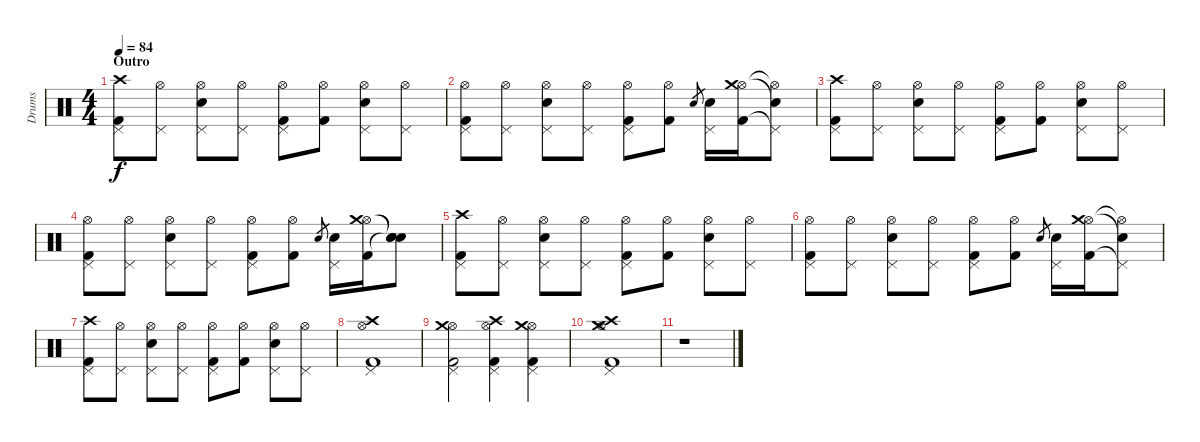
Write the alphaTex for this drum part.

\track ("Drums" "Drums") {instrument percussion}
\staff {score}
\articulation defaults
\ts (4 4)
\section ("" "Outro")
\tempo 84
\clef neutral
\ks c
("Kick (hit) 2" "Pedal Hi-Hat (hit)" "Crash high (hit)").8{dy f} ("Pedal Hi-Hat (hit)" "Hi-Hat (open)").8 ("Snare (hit) 2" "Pedal Hi-Hat (hit)" "Hi-Hat (open)").8 ("Pedal Hi-Hat (hit)" "Hi-Hat (open)").8 ("Kick (hit) 2" "Pedal Hi-Hat (hit)" "Hi-Hat (open)").8 ("Kick (hit) 2" "Hi-Hat (open)").8 ("Snare (hit) 2" "Pedal Hi-Hat (hit)" "Hi-Hat (open)").8 ("Pedal Hi-Hat (hit)" "Hi-Hat (open)").8 |
("Kick (hit) 2" "Pedal Hi-Hat (hit)" "Hi-Hat (open)").8 ("Pedal Hi-Hat (hit)" "Hi-Hat (open)").8 ("Snare (hit) 2" "Pedal Hi-Hat (hit)" "Hi-Hat (open)").8 ("Pedal Hi-Hat (hit)" "Hi-Hat (open)").8 ("Kick (hit) 2" "Pedal Hi-Hat (hit)" "Hi-Hat (open)").8 ("Kick (hit) 2" "Hi-Hat (open)").8 "Snare (hit) 2".8{gr} ("Snare (hit) 2" "Pedal Hi-Hat (hit)").16 ("Kick (hit) 2" "Hi-Hat (open)" "Crash medium (hit)").16 ("Pedal Hi-Hat (hit)"{t} "Hi-Hat (open)"{t} "Snare (hit)"{t}).8 |
("Kick (hit) 2" "Pedal Hi-Hat (hit)" "Crash high (hit)").8 ("Pedal Hi-Hat (hit)" "Hi-Hat (open)").8 ("Snare (hit) 2" "Pedal Hi-Hat (hit)" "Hi-Hat (open)").8 ("Pedal Hi-Hat (hit)" "Hi-Hat (open)").8 ("Kick (hit) 2" "Pedal Hi-Hat (hit)" "Hi-Hat (open)").8 ("Kick (hit) 2" "Hi-Hat (open)").8 ("Snare (hit) 2" "Pedal Hi-Hat (hit)" "Hi-Hat (open)").8 ("Pedal Hi-Hat (hit)" "Hi-Hat (open)").8 |
("Kick (hit) 2" "Pedal Hi-Hat (hit)" "Hi-Hat (open)").8 ("Pedal Hi-Hat (hit)" "Hi-Hat (open)").8 ("Snare (hit) 2" "Pedal Hi-Hat (hit)" "Hi-Hat (open)").8 ("Pedal Hi-Hat (hit)" "Hi-Hat (open)").8 ("Kick (hit) 2" "Pedal Hi-Hat (hit)" "Hi-Hat (open)").8 ("Kick (hit) 2" "Hi-Hat (open)").8 "Snare (hit) 2".8{gr} ("Snare (hit) 2" "Pedal Hi-Hat (hit)").16 ("Kick (hit) 2" "Hi-Hat (open)" "Crash medium (hit)").16 ("Snare (hit)"{t} "Snare (hit)"{t} "Snare (hit)"{t}).8 |
("Kick (hit) 2" "Pedal Hi-Hat (hit)" "Crash high (hit)").8 ("Pedal Hi-Hat (hit)" "Hi-Hat (open)").8 ("Snare (hit) 2" "Pedal Hi-Hat (hit)" "Hi-Hat (open)").8 ("Pedal Hi-Hat (hit)" "Hi-Hat (open)").8 ("Kick (hit) 2" "Pedal Hi-Hat (hit)" "Hi-Hat (open)").8 ("Kick (hit) 2" "Hi-Hat (open)").8 ("Snare (hit) 2" "Pedal Hi-Hat (hit)" "Hi-Hat (open)").8 ("Pedal Hi-Hat (hit)" "Hi-Hat (open)").8 |
("Kick (hit) 2" "Pedal Hi-Hat (hit)" "Hi-Hat (open)").8 ("Pedal Hi-Hat (hit)" "Hi-Hat (open)").8 ("Snare (hit) 2" "Pedal Hi-Hat (hit)" "Hi-Hat (open)").8 ("Pedal Hi-Hat (hit)" "Hi-Hat (open)").8 ("Kick (hit) 2" "Pedal Hi-Hat (hit)" "Hi-Hat (open)").8 ("Kick (hit) 2" "Hi-Hat (open)").8 "Snare (hit) 2".8{gr} ("Snare (hit) 2" "Pedal Hi-Hat (hit)").16 ("Kick (hit) 2" "Hi-Hat (open)" "Crash medium (hit)").16 ("Pedal Hi-Hat (hit)"{t} "Hi-Hat (open)"{t} "Snare (hit)"{t}).8 |
("Kick (hit) 2" "Pedal Hi-Hat (hit)" "Crash high (hit)").8 ("Pedal Hi-Hat (hit)" "Hi-Hat (open)").8 ("Snare (hit) 2" "Pedal Hi-Hat (hit)" "Hi-Hat (open)").8 ("Pedal Hi-Hat (hit)" "Hi-Hat (open)").8 ("Kick (hit) 2" "Pedal Hi-Hat (hit)" "Hi-Hat (open)").8 ("Kick (hit) 2" "Hi-Hat (open)").8 ("Snare (hit) 2" "Pedal Hi-Hat (hit)" "Hi-Hat (open)").8 ("Pedal Hi-Hat (hit)" "Hi-Hat (open)").8 |
("Kick (hit) 2" "Pedal Hi-Hat (hit)" "Hi-Hat (open)" "Crash high (hit)").1 |
("Kick (hit) 2" "Pedal Hi-Hat (hit)" "Hi-Hat (open)" "Crash medium (hit)").2 ("Kick (hit) 2" "Pedal Hi-Hat (hit)" "Hi-Hat (open)" "Crash high (hit)").4 ("Kick (hit) 2" "Pedal Hi-Hat (hit)" "Hi-Hat (open)" "Crash medium (hit)").4 |
("Kick (hit) 2" "Pedal Hi-Hat (hit)" "Hi-Hat (open)" "Crash high (hit)" "Crash medium (hit)").1 |
r.1
